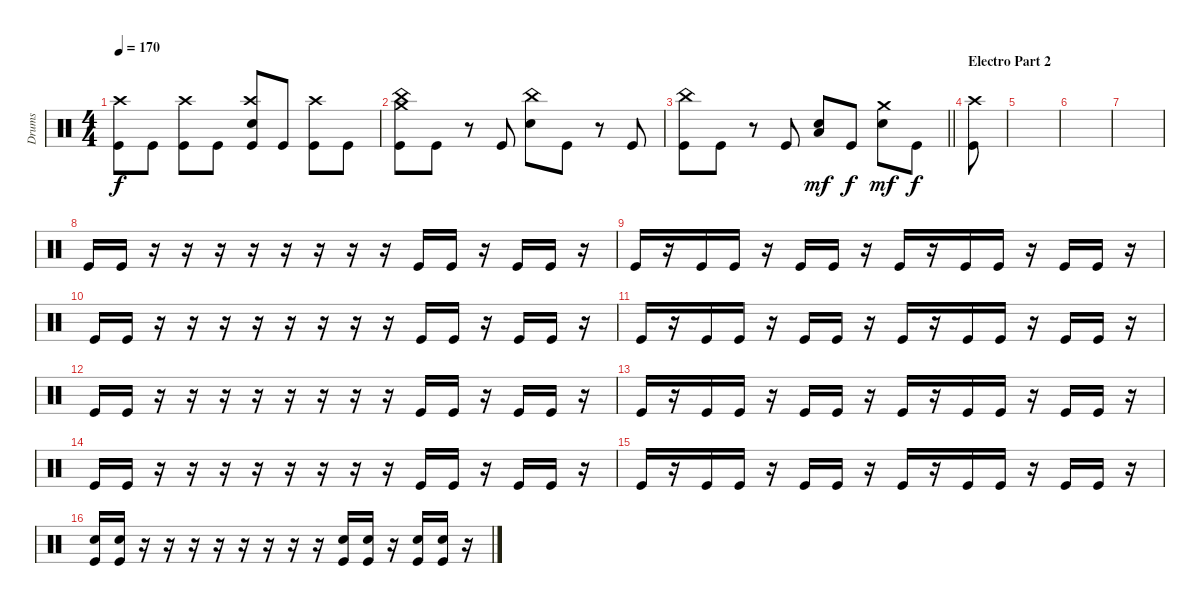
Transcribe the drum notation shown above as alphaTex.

\track ("Drums" "Drums") {instrument percussion}
\staff {score}
\articulation defaults
\ts (4 4)
\tempo 170
\clef neutral
\ks c
("Kick (hit)" "Crash high (hit)").8{dy f} "Kick (hit)".8 ("Kick (hit)" "Crash high (hit)").8 "Kick (hit)".8 ("Kick (hit)" "Snare (hit) 2" "Crash high (hit)").8 "Kick (hit)".8 ("Kick (hit)" "Crash high (hit)").8 "Kick (hit)".8 |
("Kick (hit)" "China (hit)" "Crash medium (hit)").8 "Kick (hit)".8 r.8 "Kick (hit)".8 ("Snare (hit) 2" "China (hit)").8 "Kick (hit)".8 r.8 "Kick (hit)".8 |
\barLineRight lightlight
("Kick (hit)" "China (hit)").8 "Kick (hit)".8 r.8 "Kick (hit)".8 ("Snare (hit) 2" "Low Tom (hit)").8{dy mf} "Kick (hit)".8{dy f} ("Snare (hit) 2" "Crash medium (hit)").8{dy mf} "Kick (hit)".8{dy f} |
\section ("" "Electro Part 2")
("Kick (hit)" "Crash high (hit)").8 |
|
|
|
"Kick (hit)".16 "Kick (hit)".16 r.16 r.16 r.16 r.16 r.16 r.16 r.16 r.16 "Kick (hit)".16 "Kick (hit)".16 r.16 "Kick (hit)".16 "Kick (hit)".16 r.16 |
"Kick (hit)".16 r.16 "Kick (hit)".16 "Kick (hit)".16 r.16 "Kick (hit)".16 "Kick (hit)".16 r.16 "Kick (hit)".16 r.16 "Kick (hit)".16 "Kick (hit)".16 r.16 "Kick (hit)".16 "Kick (hit)".16 r.16 |
"Kick (hit)".16 "Kick (hit)".16 r.16 r.16 r.16 r.16 r.16 r.16 r.16 r.16 "Kick (hit)".16 "Kick (hit)".16 r.16 "Kick (hit)".16 "Kick (hit)".16 r.16 |
"Kick (hit)".16 r.16 "Kick (hit)".16 "Kick (hit)".16 r.16 "Kick (hit)".16 "Kick (hit)".16 r.16 "Kick (hit)".16 r.16 "Kick (hit)".16 "Kick (hit)".16 r.16 "Kick (hit)".16 "Kick (hit)".16 r.16 |
"Kick (hit)".16 "Kick (hit)".16 r.16 r.16 r.16 r.16 r.16 r.16 r.16 r.16 "Kick (hit)".16 "Kick (hit)".16 r.16 "Kick (hit)".16 "Kick (hit)".16 r.16 |
"Kick (hit)".16 r.16 "Kick (hit)".16 "Kick (hit)".16 r.16 "Kick (hit)".16 "Kick (hit)".16 r.16 "Kick (hit)".16 r.16 "Kick (hit)".16 "Kick (hit)".16 r.16 "Kick (hit)".16 "Kick (hit)".16 r.16 |
"Kick (hit)".16 "Kick (hit)".16 r.16 r.16 r.16 r.16 r.16 r.16 r.16 r.16 "Kick (hit)".16 "Kick (hit)".16 r.16 "Kick (hit)".16 "Kick (hit)".16 r.16 |
"Kick (hit)".16 r.16 "Kick (hit)".16 "Kick (hit)".16 r.16 "Kick (hit)".16 "Kick (hit)".16 r.16 "Kick (hit)".16 r.16 "Kick (hit)".16 "Kick (hit)".16 r.16 "Kick (hit)".16 "Kick (hit)".16 r.16 |
("Kick (hit)" "Snare (hit) 2").16 ("Kick (hit)" "Snare (hit) 2").16 r.16 r.16 r.16 r.16 r.16 r.16 r.16 r.16 ("Kick (hit)" "Snare (hit) 2").16 ("Kick (hit)" "Snare (hit) 2").16 r.16 ("Kick (hit)" "Snare (hit) 2").16 ("Kick (hit)" "Snare (hit) 2").16 r.16
